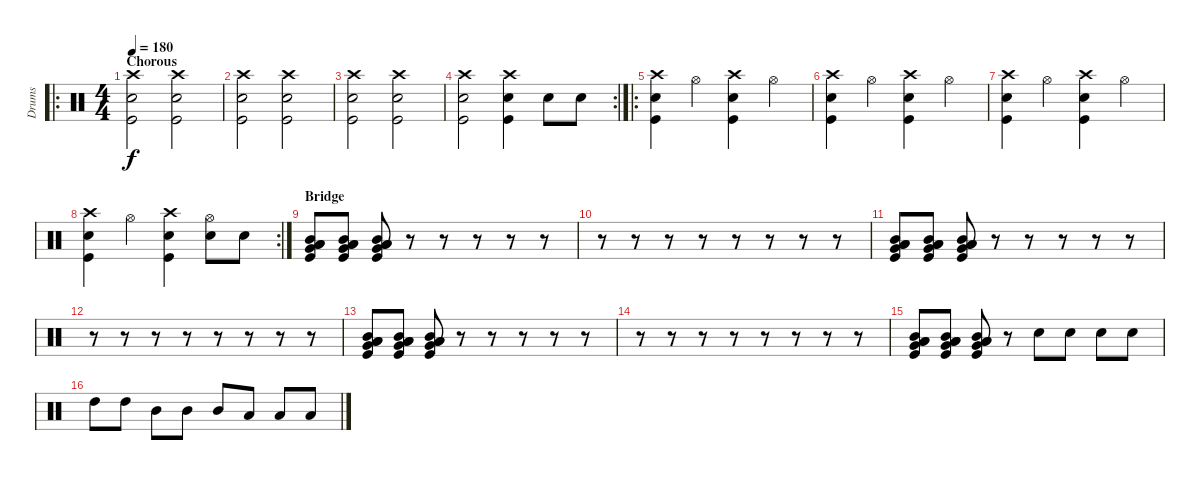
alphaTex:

\track ("Drums" "Drums") {instrument percussion}
\staff {score}
\articulation defaults
\ro
\ts (4 4)
\section ("" "Chorous")
\tempo 180
\clef neutral
\ks c
("Crash high (hit)" "Snare (hit) 2" "Kick (hit)").2{dy f} ("Crash high (hit)" "Snare (hit) 2" "Kick (hit)").2 |
("Crash high (hit)" "Snare (hit) 2" "Kick (hit)").2 ("Crash high (hit)" "Snare (hit) 2" "Kick (hit)").2 |
("Crash high (hit)" "Snare (hit) 2" "Kick (hit)").2 ("Crash high (hit)" "Snare (hit) 2" "Kick (hit)").2 |
\rc 2
("Crash high (hit)" "Snare (hit) 2" "Kick (hit)").2 ("Crash high (hit)" "Snare (hit) 2" "Kick (hit)").4 "Snare (hit) 2".8 "Snare (hit) 2".8 |
\ro
("Crash high (hit)" "Snare (hit) 2" "Kick (hit)").4 "Hi-Hat (open)".4 ("Crash high (hit)" "Snare (hit) 2" "Kick (hit)").4 "Hi-Hat (open)".4 |
("Crash high (hit)" "Snare (hit) 2" "Kick (hit)").4 "Hi-Hat (open)".4 ("Crash high (hit)" "Snare (hit) 2" "Kick (hit)").4 "Hi-Hat (open)".4 |
("Crash high (hit)" "Snare (hit) 2" "Kick (hit)").4 "Hi-Hat (open)".4 ("Crash high (hit)" "Snare (hit) 2" "Kick (hit)").4 "Hi-Hat (open)".4 |
\rc 2
("Crash high (hit)" "Snare (hit) 2" "Kick (hit)").4 "Hi-Hat (open)".4 ("Crash high (hit)" "Snare (hit) 2" "Kick (hit)").4 ("Hi-Hat (open)" "Snare (hit) 2").8 "Snare (hit) 2".8 |
\section ("" "Bridge")
("Mid Tom (hit)" "Low Tom (hit)" "Low Floor Tom (hit)" "Very Low Tom (hit)" "Kick (hit)").8 ("Mid Tom (hit)" "Low Tom (hit)" "Low Floor Tom (hit)" "Very Low Tom (hit)" "Kick (hit)").8 ("Mid Tom (hit)" "Low Tom (hit)" "Low Floor Tom (hit)" "Very Low Tom (hit)" "Kick (hit)").8 r.8 r.8 r.8 r.8 r.8 |
r.8 r.8 r.8 r.8 r.8 r.8 r.8 r.8 |
("Mid Tom (hit)" "Low Tom (hit)" "Low Floor Tom (hit)" "Very Low Tom (hit)" "Kick (hit)").8 ("Mid Tom (hit)" "Low Tom (hit)" "Low Floor Tom (hit)" "Very Low Tom (hit)" "Kick (hit)").8 ("Mid Tom (hit)" "Low Tom (hit)" "Low Floor Tom (hit)" "Very Low Tom (hit)" "Kick (hit)").8 r.8 r.8 r.8 r.8 r.8 |
r.8 r.8 r.8 r.8 r.8 r.8 r.8 r.8 |
("Mid Tom (hit)" "Low Tom (hit)" "Low Floor Tom (hit)" "Very Low Tom (hit)" "Kick (hit)").8 ("Mid Tom (hit)" "Low Tom (hit)" "Low Floor Tom (hit)" "Very Low Tom (hit)" "Kick (hit)").8 ("Mid Tom (hit)" "Low Tom (hit)" "Low Floor Tom (hit)" "Very Low Tom (hit)" "Kick (hit)").8 r.8 r.8 r.8 r.8 r.8 |
r.8 r.8 r.8 r.8 r.8 r.8 r.8 r.8 |
("Mid Tom (hit)" "Low Tom (hit)" "Low Floor Tom (hit)" "Very Low Tom (hit)" "Kick (hit)").8 ("Mid Tom (hit)" "Low Tom (hit)" "Low Floor Tom (hit)" "Very Low Tom (hit)" "Kick (hit)").8 ("Mid Tom (hit)" "Low Tom (hit)" "Low Floor Tom (hit)" "Very Low Tom (hit)" "Kick (hit)").8 r.8 "Snare (hit) 2".8 "Snare (hit) 2".8 "Snare (hit) 2".8 "Snare (hit) 2".8 |
"High Tom (hit)".8 "High Tom (hit)".8 "Mid Tom (hit)".8 "Mid Tom (hit)".8 "Mid Tom (hit)".8 "Low Tom (hit)".8 "Low Tom (hit)".8 "Low Tom (hit)".8
